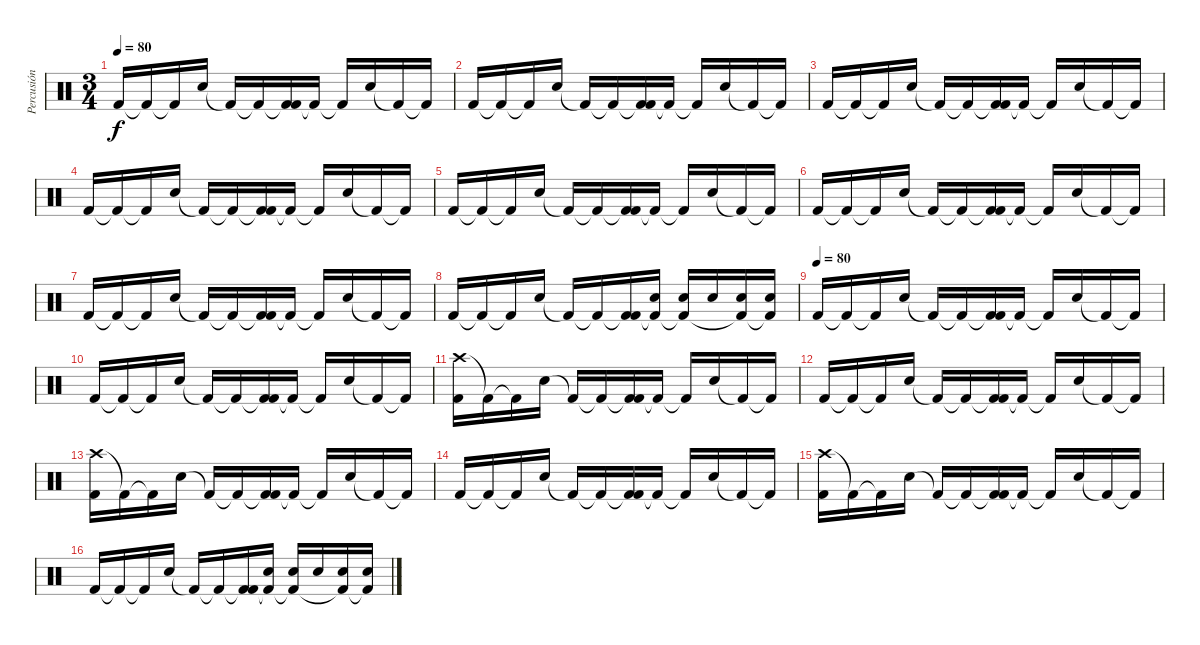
\track ("Percusión" "Percusión") {instrument percussion}
\staff {score}
\articulation defaults
\ts (3 4)
\tempo 80
\clef neutral
\ks c "Kick (hit) 2".16{dy f} "Kick (hit) 2"{t}.16 "Kick (hit) 2"{t}.16 "Electric Snare (hit)".16 "Kick (hit) 2"{t}.16 "Kick (hit) 2"{t}.16
("Kick (hit) 2"{t} "Kick (hit) 2").16 "Kick (hit) 2"{t}.16 "Kick (hit) 2"{t}.16 "Electric Snare (hit)".16 "Kick (hit) 2"{t}.16 "Kick (hit) 2"{t}.16 |
"Kick (hit) 2".16 "Kick (hit) 2"{t}.16 "Kick (hit) 2"{t}.16 "Electric Snare (hit)".16 "Kick (hit) 2"{t}.16 "Kick (hit) 2"{t}.16 ("Kick (hit) 2"{t} "Kick (hit) 2").16 "Kick (hit) 2"{t}.16 "Kick (hit) 2"{t}.16 "Electric Snare (hit)".16 "Kick (hit) 2"{t}.16 "Kick (hit) 2"{t}.16 |
"Kick (hit) 2".16 "Kick (hit) 2"{t}.16 "Kick (hit) 2"{t}.16 "Electric Snare (hit)".16 "Kick (hit) 2"{t}.16 "Kick (hit) 2"{t}.16 ("Kick (hit) 2"{t} "Kick (hit) 2").16 "Kick (hit) 2"{t}.16 "Kick (hit) 2"{t}.16 "Electric Snare (hit)".16 "Kick (hit) 2"{t}.16 "Kick (hit) 2"{t}.16 |
"Kick (hit) 2".16 "Kick (hit) 2"{t}.16 "Kick (hit) 2"{t}.16 "Electric Snare (hit)".16 "Kick (hit) 2"{t}.16 "Kick (hit) 2"{t}.16 ("Kick (hit) 2"{t} "Kick (hit) 2").16 "Kick (hit) 2"{t}.16 "Kick (hit) 2"{t}.16 "Electric Snare (hit)".16 "Kick (hit) 2"{t}.16 "Kick (hit) 2"{t}.16 |
"Kick (hit) 2".16 "Kick (hit) 2"{t}.16 "Kick (hit) 2"{t}.16 "Electric Snare (hit)".16 "Kick (hit) 2"{t}.16 "Kick (hit) 2"{t}.16 ("Kick (hit) 2"{t} "Kick (hit) 2").16 "Kick (hit) 2"{t}.16 "Kick (hit) 2"{t}.16 "Electric Snare (hit)".16 "Kick (hit) 2"{t}.16 "Kick (hit) 2"{t}.16 |
"Kick (hit) 2".16 "Kick (hit) 2"{t}.16 "Kick (hit) 2"{t}.16 "Electric Snare (hit)".16 "Kick (hit) 2"{t}.16 "Kick (hit) 2"{t}.16 ("Kick (hit) 2"{t} "Kick (hit) 2").16 "Kick (hit) 2"{t}.16 "Kick (hit) 2"{t}.16 "Electric Snare (hit)".16 "Kick (hit) 2"{t}.16 "Kick (hit) 2"{t}.16 |
"Kick (hit) 2".16 "Kick (hit) 2"{t}.16 "Kick (hit) 2"{t}.16 "Electric Snare (hit)".16 "Kick (hit) 2"{t}.16 "Kick (hit) 2"{t}.16 ("Kick (hit) 2"{t} "Kick (hit) 2").16 "Kick (hit) 2"{t}.16 "Kick (hit) 2"{t}.16 "Electric Snare (hit)".16 "Kick (hit) 2"{t}.16 "Kick (hit) 2"{t}.16 |
"Kick (hit) 2".16 "Kick (hit) 2"{t}.16 "Kick (hit) 2"{t}.16 "Electric Snare (hit)".16 "Kick (hit) 2"{t}.16 "Kick (hit) 2"{t}.16 ("Kick (hit) 2"{t} "Kick (hit) 2").16 ("Electric Snare (hit)" "Kick (hit) 2"{t}).16 ("Electric Snare (hit)" "Kick (hit) 2"{t}).16 "Electric Snare (hit)".16 ("Electric Snare (hit)" "Kick (hit) 2"{t}).16 ("Electric Snare (hit)" "Kick (hit) 2"{t}).16 |
\tempo (80)
"Kick (hit) 2".16 "Kick (hit) 2"{t}.16 "Kick (hit) 2"{t}.16 "Electric Snare (hit)".16 "Kick (hit) 2"{t}.16 "Kick (hit) 2"{t}.16 ("Kick (hit) 2"{t} "Kick (hit) 2").16 "Kick (hit) 2"{t}.16 "Kick (hit) 2"{t}.16 "Electric Snare (hit)".16 "Kick (hit) 2"{t}.16 "Kick (hit) 2"{t}.16 |
"Kick (hit) 2".16 "Kick (hit) 2"{t}.16 "Kick (hit) 2"{t}.16 "Electric Snare (hit)".16 "Kick (hit) 2"{t}.16 "Kick (hit) 2"{t}.16 ("Kick (hit) 2"{t} "Kick (hit) 2").16 "Kick (hit) 2"{t}.16 "Kick (hit) 2"{t}.16 "Electric Snare (hit)".16 "Kick (hit) 2"{t}.16 "Kick (hit) 2"{t}.16 |
("Crash high (hit)" "Kick (hit) 2").16 "Kick (hit) 2"{t}.16 "Kick (hit) 2"{t}.16 "Electric Snare (hit)".16 "Kick (hit) 2"{t}.16 "Kick (hit) 2"{t}.16 ("Kick (hit) 2"{t} "Kick (hit) 2").16 "Kick (hit) 2"{t}.16 "Kick (hit) 2"{t}.16 "Electric Snare (hit)".16 "Kick (hit) 2"{t}.16 "Kick (hit) 2"{t}.16 |
"Kick (hit) 2".16 "Kick (hit) 2"{t}.16 "Kick (hit) 2"{t}.16 "Electric Snare (hit)".16 "Kick (hit) 2"{t}.16 "Kick (hit) 2"{t}.16 ("Kick (hit) 2"{t} "Kick (hit) 2").16 "Kick (hit) 2"{t}.16 "Kick (hit) 2"{t}.16 "Electric Snare (hit)".16 "Kick (hit) 2"{t}.16 "Kick (hit) 2"{t}.16 |
("Crash high (hit)" "Kick (hit) 2").16 "Kick (hit) 2"{t}.16 "Kick (hit) 2"{t}.16 "Electric Snare (hit)".16 "Kick (hit) 2"{t}.16 "Kick (hit) 2"{t}.16 ("Kick (hit) 2"{t} "Kick (hit) 2").16 "Kick (hit) 2"{t}.16 "Kick (hit) 2"{t}.16 "Electric Snare (hit)".16 "Kick (hit) 2"{t}.16 "Kick (hit) 2"{t}.16 |
"Kick (hit) 2".16 "Kick (hit) 2"{t}.16 "Kick (hit) 2"{t}.16 "Electric Snare (hit)".16 "Kick (hit) 2"{t}.16 "Kick (hit) 2"{t}.16 ("Kick (hit) 2"{t} "Kick (hit) 2").16 "Kick (hit) 2"{t}.16 "Kick (hit) 2"{t}.16 "Electric Snare (hit)".16 "Kick (hit) 2"{t}.16 "Kick (hit) 2"{t}.16 |
("Crash high (hit)" "Kick (hit) 2").16 "Kick (hit) 2"{t}.16 "Kick (hit) 2"{t}.16 "Electric Snare (hit)".16 "Kick (hit) 2"{t}.16 "Kick (hit) 2"{t}.16 ("Kick (hit) 2"{t} "Kick (hit) 2").16 "Kick (hit) 2"{t}.16 "Kick (hit) 2"{t}.16 "Electric Snare (hit)".16 "Kick (hit) 2"{t}.16 "Kick (hit) 2"{t}.16 |
"Kick (hit) 2".16 "Kick (hit) 2"{t}.16 "Kick (hit) 2"{t}.16 "Electric Snare (hit)".16 "Kick (hit) 2"{t}.16 "Kick (hit) 2"{t}.16 ("Kick (hit) 2"{t} "Kick (hit) 2").16 ("Electric Snare (hit)" "Kick (hit) 2"{t}).16 ("Electric Snare (hit)" "Kick (hit) 2"{t}).16 "Electric Snare (hit)".16 ("Electric Snare (hit)" "Kick (hit) 2"{t}).16 ("Electric Snare (hit)" "Kick (hit) 2"{t}).16
